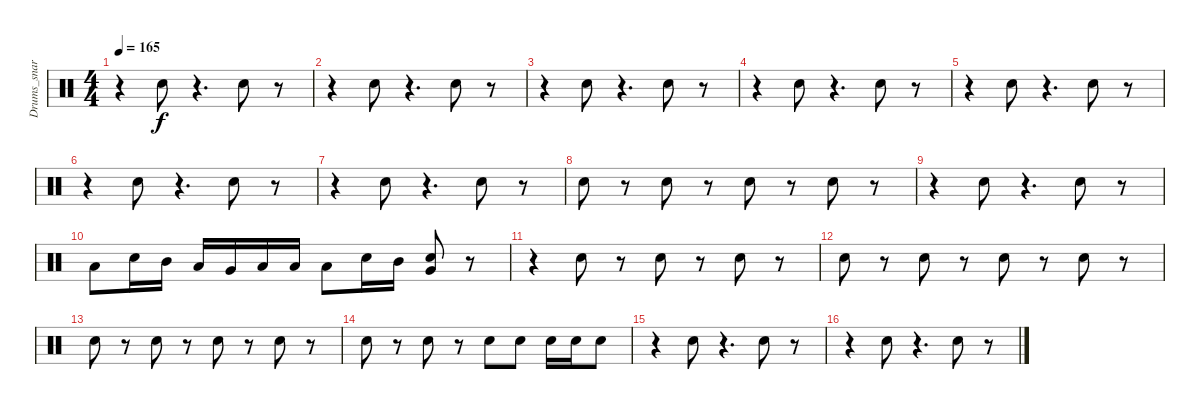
\track ("Drums_snare&tom" "Drums_snar") {instrument percussion}
\staff {score}
\articulation defaults
\ts (4 4)
\tempo 165
\clef neutral
\ks c
r.4{dy f} "Snare (hit) 2".8 r.4{d} "Snare (hit) 2".8 r.8 |
r.4 "Snare (hit) 2".8 r.4{d} "Snare (hit) 2".8 r.8 |
r.4 "Snare (hit) 2".8 r.4{d} "Snare (hit) 2".8 r.8 |
r.4 "Snare (hit) 2".8 r.4{d} "Snare (hit) 2".8 r.8 |
r.4 "Snare (hit) 2".8 r.4{d} "Snare (hit) 2".8 r.8 |
r.4 "Snare (hit) 2".8 r.4{d} "Snare (hit) 2".8 r.8 |
r.4 "Snare (hit) 2".8 r.4{d} "Snare (hit) 2".8 r.8 |
"Snare (hit) 2".8 r.8 "Snare (hit) 2".8 r.8 "Snare (hit) 2".8 r.8 "Snare (hit) 2".8 r.8 |
r.4 "Snare (hit) 2".8 r.4{d} "Snare (hit) 2".8 r.8 |
"Low Tom (hit)".8 "Snare (hit) 2".16 "Mid Tom (hit)".16 "Low Tom (hit)".16 "Very Low Tom (hit)".16 "Low Floor Tom (hit)".16 "Low Floor Tom (hit)".16 "Low Tom (hit)".8 "Snare (hit) 2".16 "Mid Tom (hit)".16 ("Very Low Tom (hit)" "Snare (hit) 2").8 r.8 |
r.4 "Snare (hit) 2".8 r.8 "Snare (hit) 2".8 r.8 "Snare (hit) 2".8 r.8 |
"Snare (hit) 2".8 r.8 "Snare (hit) 2".8 r.8 "Snare (hit) 2".8 r.8 "Snare (hit) 2".8 r.8 |
"Snare (hit) 2".8 r.8 "Snare (hit) 2".8 r.8 "Snare (hit) 2".8 r.8 "Snare (hit) 2".8 r.8 |
"Snare (hit) 2".8 r.8 "Snare (hit) 2".8 r.8 "Snare (hit) 2".8 "Snare (hit) 2".8 "Snare (hit) 2".16 "Snare (hit) 2".16 "Snare (hit) 2".8 |
r.4 "Snare (hit) 2".8 r.4{d} "Snare (hit) 2".8 r.8 |
r.4 "Snare (hit) 2".8 r.4{d} "Snare (hit) 2".8 r.8
